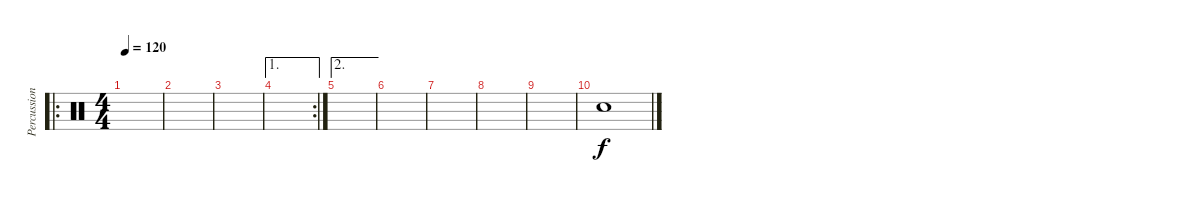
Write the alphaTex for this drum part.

\track ("Percussion" "Percussion") {instrument percussion}
\staff {score}
\articulation defaults
\ro
\ts (4 4)
\tempo 120
\clef neutral
\ks c
|
|
|
\ae 1
\rc 2
|
\ae 2
|
|
|
|
|
"Snare (hit) 2".1
